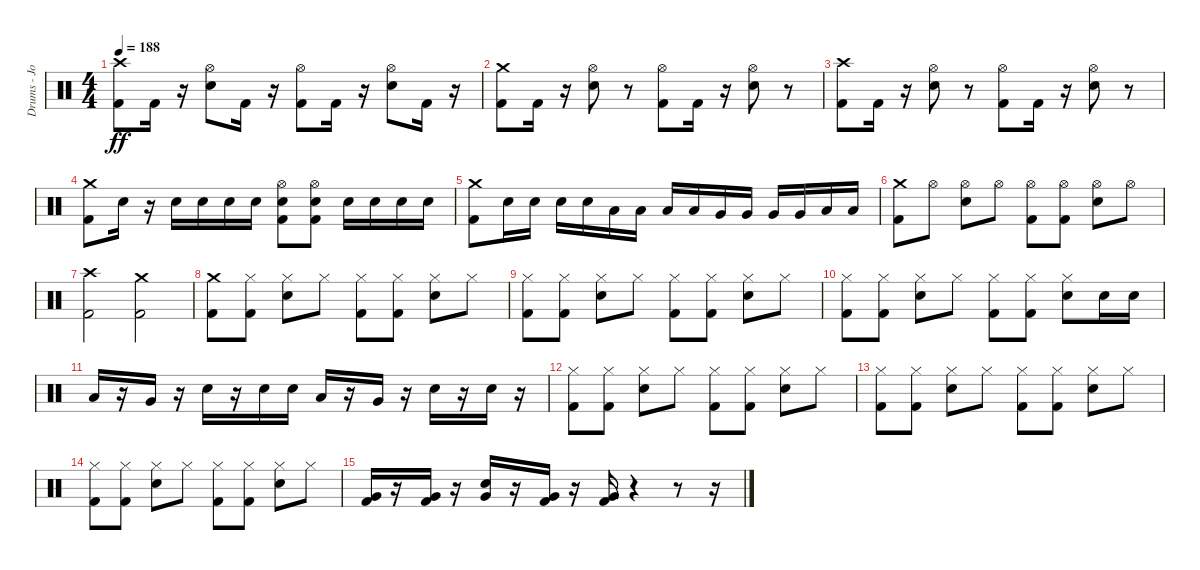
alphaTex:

\track ("Drums - Jordan" "Drums - Jo") {instrument percussion}
\staff {score}
\articulation defaults
\ts (4 4)
\tempo 188
\clef neutral
\ks c
("Kick (hit) 2" "Crash high (hit)").8{dy ff} "Kick (hit) 2".16 r.16 ("Electric Snare (hit)" "Hi-Hat (open)").8 "Kick (hit) 2".16 r.16 ("Kick (hit) 2" "Hi-Hat (open)").8 "Kick (hit) 2".16 r.16 ("Electric Snare (hit)" "Hi-Hat (open)").8 "Kick (hit) 2".16 r.16 |
("Kick (hit) 2" "Crash medium (hit)").8 "Kick (hit) 2".16 r.16 ("Electric Snare (hit)" "Hi-Hat (open)").8 r.8 ("Hi-Hat (open)" "Kick (hit) 2").8 "Kick (hit) 2".16 r.16 ("Electric Snare (hit)" "Hi-Hat (open)").8 r.8 |
("Kick (hit) 2" "Crash high (hit)").8 "Kick (hit) 2".16 r.16 ("Electric Snare (hit)" "Hi-Hat (open)").8 r.8 ("Hi-Hat (open)" "Kick (hit) 2").8 "Kick (hit) 2".16 r.16 ("Electric Snare (hit)" "Hi-Hat (open)").8 r.8 |
("Crash medium (hit)" "Kick (hit) 2").8 "Electric Snare (hit)".16 r.16 "Electric Snare (hit)".16 "Electric Snare (hit)".16 "Electric Snare (hit)".16 "Electric Snare (hit)".16 ("Electric Snare (hit)" "Kick (hit) 2" "Hi-Hat (open)").8 ("Electric Snare (hit)" "Kick (hit) 2" "Hi-Hat (open)").8 "Electric Snare (hit)".16 "Electric Snare (hit)".16 "Electric Snare (hit)".16 "Electric Snare (hit)".16 |
("Kick (hit) 2" "Crash medium (hit)").8 "Electric Snare (hit)".16 "Electric Snare (hit)".16 "Electric Snare (hit)".16 "Electric Snare (hit)".16 "Low Tom (hit)".16 "Low Tom (hit)".16 "Low Tom (hit)".16 "Low Tom (hit)".16 "Very Low Tom (hit)".16 "Very Low Tom (hit)".16 "Very Low Tom (hit)".16 "Very Low Tom (hit)".16 "Low Floor Tom (hit)".16 "Low Floor Tom (hit)".16 |
("Kick (hit) 2" "Crash medium (hit)").8 "Hi-Hat (open)".8 ("Electric Snare (hit)" "Hi-Hat (open)").8 "Hi-Hat (open)".8 ("Hi-Hat (open)" "Kick (hit) 2").8 ("Kick (hit) 2" "Hi-Hat (open)").8 ("Electric Snare (hit)" "Hi-Hat (open)").8 "Hi-Hat (open)".8 |
("Kick (hit) 2" "Crash high (hit)").2 ("Kick (hit) 2" "Crash medium (hit)").2 |
("Kick (hit) 2" "Crash medium (hit)").8 ("Kick (hit) 2" "Hi-Hat (closed)").8 ("Electric Snare (hit)" "Hi-Hat (closed)").8 "Hi-Hat (closed)".8 ("Kick (hit) 2" "Hi-Hat (closed)").8 ("Kick (hit) 2" "Hi-Hat (closed)").8 ("Electric Snare (hit)" "Hi-Hat (closed)").8 "Hi-Hat (closed)".8 |
("Kick (hit) 2" "Hi-Hat (closed)").8 ("Kick (hit) 2" "Hi-Hat (closed)").8 ("Electric Snare (hit)" "Hi-Hat (closed)").8 "Hi-Hat (closed)".8 ("Kick (hit) 2" "Hi-Hat (closed)").8 ("Kick (hit) 2" "Hi-Hat (closed)").8 ("Electric Snare (hit)" "Hi-Hat (closed)").8 "Hi-Hat (closed)".8 |
("Kick (hit) 2" "Hi-Hat (closed)").8 ("Kick (hit) 2" "Hi-Hat (closed)").8 ("Electric Snare (hit)" "Hi-Hat (closed)").8 "Hi-Hat (closed)".8 ("Kick (hit) 2" "Hi-Hat (closed)").8 ("Kick (hit) 2" "Hi-Hat (closed)").8 ("Electric Snare (hit)" "Hi-Hat (closed)").8 "Electric Snare (hit)".16 "Electric Snare (hit)".16 |
"Low Tom (hit)".16 r.16 "Very Low Tom (hit)".16 r.16 "Electric Snare (hit)".16 r.16 "Electric Snare (hit)".16 "Electric Snare (hit)".16 "Low Tom (hit)".16 r.16 "Very Low Tom (hit)".16 r.16 "Electric Snare (hit)".16 r.16 "Electric Snare (hit)".16 r.16 |
("Kick (hit) 2" "Hi-Hat (closed)").8 ("Kick (hit) 2" "Hi-Hat (closed)").8 ("Electric Snare (hit)" "Hi-Hat (closed)").8 "Hi-Hat (closed)".8 ("Kick (hit) 2" "Hi-Hat (closed)").8 ("Kick (hit) 2" "Hi-Hat (closed)").8 ("Electric Snare (hit)" "Hi-Hat (closed)").8 "Hi-Hat (closed)".8 |
("Kick (hit) 2" "Hi-Hat (closed)").8 ("Kick (hit) 2" "Hi-Hat (closed)").8 ("Electric Snare (hit)" "Hi-Hat (closed)").8 "Hi-Hat (closed)".8 ("Kick (hit) 2" "Hi-Hat (closed)").8 ("Kick (hit) 2" "Hi-Hat (closed)").8 ("Electric Snare (hit)" "Hi-Hat (closed)").8 "Hi-Hat (closed)".8 |
("Kick (hit) 2" "Hi-Hat (closed)").8 ("Kick (hit) 2" "Hi-Hat (closed)").8 ("Electric Snare (hit)" "Hi-Hat (closed)").8 "Hi-Hat (closed)".8 ("Kick (hit) 2" "Hi-Hat (closed)").8 ("Kick (hit) 2" "Hi-Hat (closed)").8 ("Electric Snare (hit)" "Hi-Hat (closed)").8 "Hi-Hat (closed)".8 |
("Kick (hit) 2" "Very Low Tom (hit)").16 r.16 ("Kick (hit) 2" "Very Low Tom (hit)").16 r.16 ("Electric Snare (hit)" "Very Low Tom (hit)").16 r.16 ("Kick (hit) 2" "Very Low Tom (hit)").16 r.16 ("Kick (hit) 2" "Very Low Tom (hit)").16 r.4 r.8 r.16
